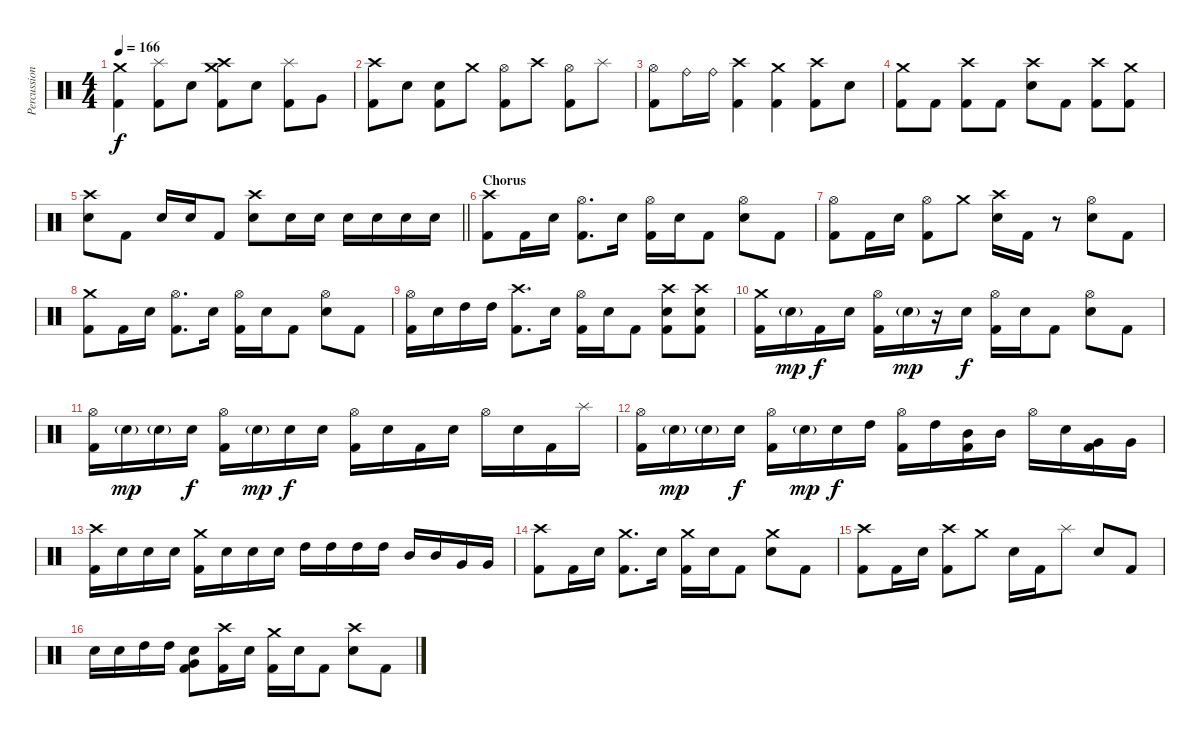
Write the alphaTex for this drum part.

\track ("Percussion" "Percussion") {instrument percussion}
\staff {score}
\articulation defaults
\ts (4 4)
\tempo 166
\clef neutral
\ks c
("Crash medium (hit)" "Kick (hit) 2").4{dy f} ("Splash (hit)" "Kick (hit) 2").8 "Electric Snare (hit)".8 ("Crash high (hit)" "Crash medium (hit)" "Kick (hit) 2").8 "Electric Snare (hit)".8 ("Splash (hit)" "Kick (hit) 2").8 "Very Low Tom (hit)".8 |
("Crash high (hit)" "Kick (hit) 2").8 "Electric Snare (hit)".8 ("Electric Snare (hit)" "Kick (hit) 2").8 "Crash medium (hit)".8 ("Hi-Hat (open)" "Kick (hit) 2").8 "Crash high (hit)".8 ("Hi-Hat (open)" "Kick (hit) 2").8 "Splash (hit)".8 |
("Hi-Hat (open)" "Kick (hit) 2").8 "Ride (bell)".16 "Ride (bell)".16 ("Crash high (hit)" "Kick (hit) 2").4 ("Crash medium (hit)" "Kick (hit) 2").4 ("Crash high (hit)" "Kick (hit) 2").8 "Electric Snare (hit)".8 |
("Crash medium (hit)" "Kick (hit) 2").8 "Kick (hit) 2".8 ("Crash high (hit)" "Kick (hit) 2").8 "Kick (hit) 2".8 ("Crash high (hit)" "Electric Snare (hit)").8 "Kick (hit) 2".8 ("Crash high (hit)" "Kick (hit) 2").8 ("Crash medium (hit)" "Kick (hit) 2").8 |
\barLineRight lightlight
("Crash high (hit)" "Electric Snare (hit)").8 "Kick (hit) 2".8 "Electric Snare (hit)".16 "Electric Snare (hit)".16 "Kick (hit) 2".8 ("Crash high (hit)" "Electric Snare (hit)").8 "Electric Snare (hit)".16 "Electric Snare (hit)".16 "Electric Snare (hit)".16 "Electric Snare (hit)".16 "Electric Snare (hit)".16 "Electric Snare (hit)".16 |
\section ("" "Chorus")
("Crash high (hit)" "Kick (hit) 2").8 "Kick (hit) 2".16 "Electric Snare (hit)".16 ("Hi-Hat (open)" "Kick (hit) 2").8{d} "Electric Snare (hit)".16 ("Hi-Hat (open)" "Kick (hit) 2").16 "Electric Snare (hit)".16 "Kick (hit) 2".8 ("Hi-Hat (open)" "Electric Snare (hit)").8 "Kick (hit) 2".8 |
("Hi-Hat (open)" "Kick (hit) 2").8 "Kick (hit) 2".16 "Electric Snare (hit)".16 ("Hi-Hat (open)" "Kick (hit) 2").8 "Crash medium (hit)".8 ("Crash high (hit)" "Electric Snare (hit)").16 "Kick (hit) 2".16 r.8 ("Hi-Hat (open)" "Electric Snare (hit)").8 "Kick (hit) 2".8 |
("Crash medium (hit)" "Kick (hit) 2").8 "Kick (hit) 2".16 "Electric Snare (hit)".16 ("Hi-Hat (open)" "Kick (hit) 2").8{d} "Electric Snare (hit)".16 ("Hi-Hat (open)" "Kick (hit) 2").16 "Electric Snare (hit)".16 "Kick (hit) 2".8 ("Hi-Hat (open)" "Electric Snare (hit)").8 "Kick (hit) 2".8 |
("Hi-Hat (open)" "Kick (hit) 2").16 "Electric Snare (hit)".16 "High Tom (hit)".16 "High Tom (hit)".16 ("Crash high (hit)" "Kick (hit) 2").8{d} "Electric Snare (hit)".16 ("Hi-Hat (open)" "Kick (hit) 2").16 "Electric Snare (hit)".16 "Kick (hit) 2".8 ("Crash high (hit)" "Electric Snare (hit)" "Kick (hit) 2").8 ("Crash high (hit)" "Electric Snare (hit)" "Kick (hit) 2").8 |
("Crash medium (hit)" "Kick (hit) 2").16 "Electric Snare (hit)"{g}.16{dy mp} "Kick (hit) 2".16{dy f} "Electric Snare (hit)".16 ("Hi-Hat (open)" "Kick (hit) 2").16 "Electric Snare (hit)"{g}.16{dy mp} r.16 "Electric Snare (hit)".16{dy f} ("Hi-Hat (open)" "Kick (hit) 2").16 "Electric Snare (hit)".16 "Kick (hit) 2".8 ("Hi-Hat (open)" "Electric Snare (hit)").8 "Kick (hit) 2".8 |
("Hi-Hat (open)" "Kick (hit) 2").16 "Electric Snare (hit)"{g}.16{dy mp} "Electric Snare (hit)"{g}.16 "Electric Snare (hit)".16{dy f} ("Hi-Hat (open)" "Kick (hit) 2").16 "Electric Snare (hit)"{g}.16{dy mp} "Electric Snare (hit)".16{dy f} "Electric Snare (hit)".16 ("Hi-Hat (open)" "Kick (hit) 2").16 "Electric Snare (hit)".16 "Kick (hit) 2".16 "Electric Snare (hit)".16 "Hi-Hat (open)".16 "Electric Snare (hit)".16 "Kick (hit) 2".16 "Splash (hit)".16 |
("Hi-Hat (open)" "Kick (hit) 2").16 "Electric Snare (hit)"{g}.16{dy mp} "Electric Snare (hit)"{g}.16 "Electric Snare (hit)".16{dy f} ("Hi-Hat (open)" "Kick (hit) 2").16 "Electric Snare (hit)"{g}.16{dy mp} "Electric Snare (hit)".16{dy f} "High Tom (hit)".16 ("Hi-Hat (open)" "Kick (hit) 2").16 "High Tom (hit)".16 ("Mid Tom (hit)" "Kick (hit) 2").16 "Mid Tom (hit)".16 "Hi-Hat (open)".16 "Electric Snare (hit)".16 ("Very Low Tom (hit)" "Kick (hit) 2").16 "Very Low Tom (hit)".16 |
("Crash high (hit)" "Kick (hit) 2").16 "Electric Snare (hit)".16 "Electric Snare (hit)".16 "Electric Snare (hit)".16 ("Crash medium (hit)" "Kick (hit) 2").16 "Electric Snare (hit)".16 "Electric Snare (hit)".16 "Electric Snare (hit)".16 "High Tom (hit)".16 "High Tom (hit)".16 "High Tom (hit)".16 "High Tom (hit)".16 "Mid Tom (hit)".16 "Mid Tom (hit)".16 "Very Low Tom (hit)".16 "Very Low Tom (hit)".16 |
("Crash high (hit)" "Kick (hit) 2").8 "Kick (hit) 2".16 "Electric Snare (hit)".16 ("Crash medium (hit)" "Kick (hit) 2").8{d} "Electric Snare (hit)".16 ("Crash medium (hit)" "Kick (hit) 2").16 "Electric Snare (hit)".16 "Kick (hit) 2".8 ("Crash medium (hit)" "Electric Snare (hit)").8 "Kick (hit) 2".8 |
("Crash high (hit)" "Kick (hit) 2").8 "Kick (hit) 2".16 "Electric Snare (hit)".16 ("Crash high (hit)" "Kick (hit) 2").8 "Crash medium (hit)".8 "Electric Snare (hit)".16 "Kick (hit) 2".16 "Splash (hit)".8 "Electric Snare (hit)".8 "Kick (hit) 2".8 |
"Electric Snare (hit)".16 "Electric Snare (hit)".16 "High Tom (hit)".16 "High Tom (hit)".16 ("Very Low Tom (hit)" "Electric Snare (hit)" "Kick (hit) 2").8 ("Crash high (hit)" "Kick (hit) 2").16 "Electric Snare (hit)".16 ("Crash medium (hit)" "Kick (hit) 2").16 "Electric Snare (hit)".16 "Kick (hit) 2".8 ("Crash high (hit)" "Electric Snare (hit)").8 "Kick (hit) 2".8
